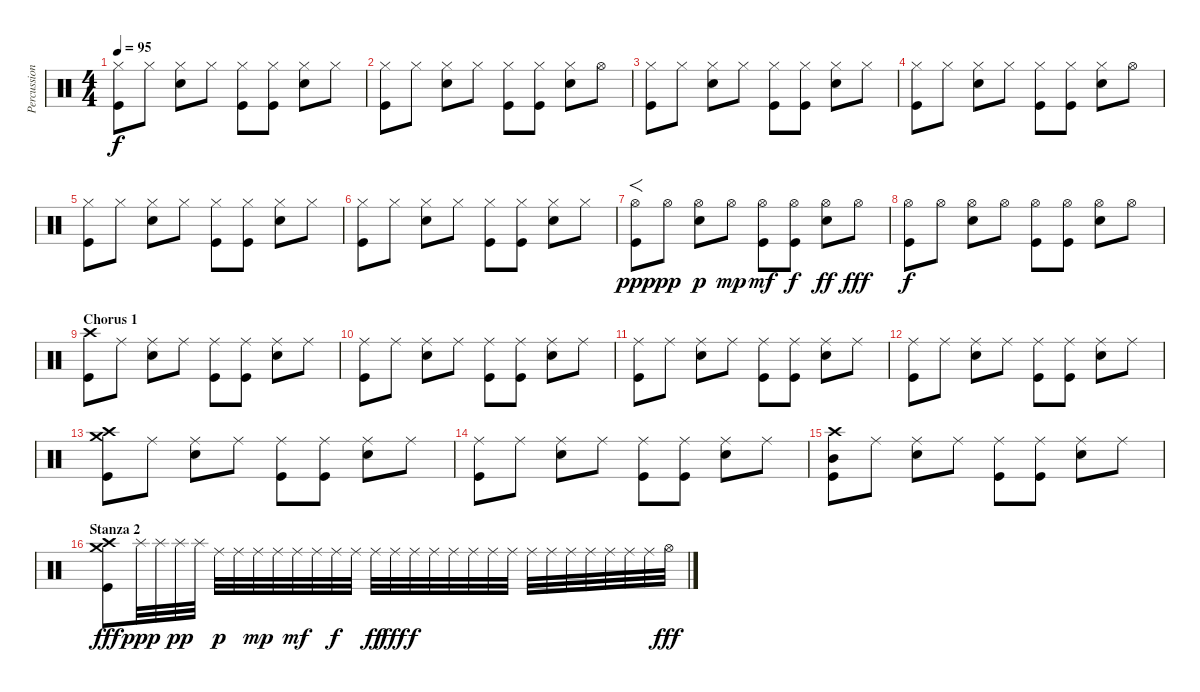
\track ("Percussion" "Percussion") {instrument percussion}
\staff {score}
\articulation defaults
\ts (4 4)
\tempo 95
\clef neutral
\ks c
("Hi-Hat (closed)" "Kick (hit)").8{dy f} "Hi-Hat (closed)".8 ("Hi-Hat (closed)" "Electric Snare (hit)").8 "Hi-Hat (closed)".8 ("Hi-Hat (closed)" "Kick (hit)").8 ("Hi-Hat (closed)" "Kick (hit)").8 ("Hi-Hat (closed)" "Electric Snare (hit)").8 "Hi-Hat (closed)".8 |
("Hi-Hat (closed)" "Kick (hit)").8 "Hi-Hat (closed)".8 ("Hi-Hat (closed)" "Electric Snare (hit)").8 "Hi-Hat (closed)".8 ("Hi-Hat (closed)" "Kick (hit)").8 ("Hi-Hat (closed)" "Kick (hit)").8 ("Hi-Hat (closed)" "Electric Snare (hit)").8 "Hi-Hat (open)".8 |
("Hi-Hat (closed)" "Kick (hit)").8 "Hi-Hat (closed)".8 ("Hi-Hat (closed)" "Electric Snare (hit)").8 "Hi-Hat (closed)".8 ("Hi-Hat (closed)" "Kick (hit)").8 ("Hi-Hat (closed)" "Kick (hit)").8 ("Hi-Hat (closed)" "Electric Snare (hit)").8 "Hi-Hat (closed)".8 |
("Hi-Hat (closed)" "Kick (hit)").8 "Hi-Hat (closed)".8 ("Hi-Hat (closed)" "Electric Snare (hit)").8 "Hi-Hat (closed)".8 ("Hi-Hat (closed)" "Kick (hit)").8 ("Hi-Hat (closed)" "Kick (hit)").8 ("Hi-Hat (closed)" "Electric Snare (hit)").8 "Hi-Hat (open)".8 |
("Hi-Hat (closed)" "Kick (hit)").8 "Hi-Hat (closed)".8 ("Hi-Hat (closed)" "Electric Snare (hit)").8 "Hi-Hat (closed)".8 ("Hi-Hat (closed)" "Kick (hit)").8 ("Hi-Hat (closed)" "Kick (hit)").8 ("Hi-Hat (closed)" "Electric Snare (hit)").8 "Hi-Hat (closed)".8 |
("Hi-Hat (closed)" "Kick (hit)").8 "Hi-Hat (closed)".8 ("Hi-Hat (closed)" "Electric Snare (hit)").8 "Hi-Hat (closed)".8 ("Hi-Hat (closed)" "Kick (hit)").8 ("Hi-Hat (closed)" "Kick (hit)").8 ("Hi-Hat (closed)" "Electric Snare (hit)").8 "Hi-Hat (closed)".8 |
("Hi-Hat (open)" "Kick (hit)").8{f dy ppp} "Hi-Hat (open)".8{dy pp} ("Hi-Hat (open)" "Electric Snare (hit)").8{dy p} "Hi-Hat (open)".8{dy mp} ("Hi-Hat (open)" "Kick (hit)").8{dy mf} ("Hi-Hat (open)" "Kick (hit)").8{dy f} ("Hi-Hat (open)" "Electric Snare (hit)").8{dy ff} "Hi-Hat (open)".8{dy fff} |
("Hi-Hat (open)" "Kick (hit)").8{dy f} "Hi-Hat (open)".8 ("Hi-Hat (open)" "Electric Snare (hit)").8 "Hi-Hat (open)".8 ("Hi-Hat (open)" "Kick (hit)").8 ("Hi-Hat (open)" "Kick (hit)").8 ("Hi-Hat (open)" "Electric Snare (hit)").8 "Hi-Hat (open)".8 |
\section ("" "Chorus 1")
("Crash high (hit)" "Kick (hit)").8 "Ride (middle)".8 ("Ride (middle)" "Electric Snare (hit)").8 "Ride (middle)".8 ("Ride (middle)" "Kick (hit)").8 ("Ride (middle)" "Kick (hit)").8 ("Ride (middle)" "Electric Snare (hit)").8 "Ride (middle)".8 |
("Ride (middle)" "Kick (hit)").8 "Ride (middle)".8 ("Ride (middle)" "Electric Snare (hit)").8 "Ride (middle)".8 ("Ride (middle)" "Kick (hit)").8 ("Ride (middle)" "Kick (hit)").8 ("Ride (middle)" "Electric Snare (hit)").8 "Ride (middle)".8 |
("Ride (middle)" "Kick (hit)").8 "Ride (middle)".8 ("Ride (middle)" "Electric Snare (hit)").8 "Ride (middle)".8 ("Ride (middle)" "Kick (hit)").8 ("Ride (middle)" "Kick (hit)").8 ("Ride (middle)" "Electric Snare (hit)").8 "Ride (middle)".8 |
("Ride (middle)" "Kick (hit)").8 "Ride (middle)".8 ("Ride (middle)" "Electric Snare (hit)").8 "Ride (middle)".8 ("Ride (middle)" "Kick (hit)").8 ("Ride (middle)" "Kick (hit)").8 ("Ride (middle)" "Electric Snare (hit)").8 "Ride (middle)".8 |
("Crash high (hit)" "Crash medium (hit)" "Kick (hit)").8 "Ride (middle)".8 ("Ride (middle)" "Electric Snare (hit)").8 "Ride (middle)".8 ("Ride (middle)" "Kick (hit)").8 ("Ride (middle)" "Kick (hit)").8 ("Ride (middle)" "Electric Snare (hit)").8 "Ride (middle)".8 |
("Ride (middle)" "Kick (hit)").8 "Ride (middle)".8 ("Ride (middle)" "Electric Snare (hit)").8 "Ride (middle)".8 ("Ride (middle)" "Kick (hit)").8 ("Ride (middle)" "Kick (hit)").8 ("Ride (middle)" "Electric Snare (hit)").8 "Ride (middle)".8 |
("Crash high (hit)" "Mid Tom (hit)" "Kick (hit)").8 "Ride (middle)".8 ("Ride (middle)" "Electric Snare (hit)").8 "Ride (middle)".8 ("Ride (middle)" "Kick (hit)").8 ("Ride (middle)" "Kick (hit)").8 ("Ride (middle)" "Electric Snare (hit)").8 "Ride (middle)".8 |
\section ("" "Stanza 2")
("Crash high (hit)" "Crash medium (hit)" "Kick (hit)").8{dy fff} "Splash (hit)".32{dy ppp} "Splash (hit)".32 "Splash (hit)".32{dy pp} "Splash (hit)".32 "Ride (middle)".32{dy p} "Ride (middle)".32 "Ride (middle)".32{dy mp} "Ride (middle)".32 "Ride (middle)".32{dy mf} "Ride (middle)".32 "Ride (middle)".32{dy f} "Ride (middle)".32 "Ride (middle)".32{dy ff} "Ride (middle)".32{dy fff} "Ride (middle)".32{dy f} "Ride (middle)".32 "Ride (middle)".32 "Ride (middle)".32 "Ride (middle)".32 "Ride (middle)".32 "Ride (middle)".32 "Ride (middle)".32 "Ride (middle)".32 "Ride (middle)".32 "Ride (middle)".32 "Ride (middle)".32 "Ride (middle)".32 "Hi-Hat (open)".32{dy fff}
